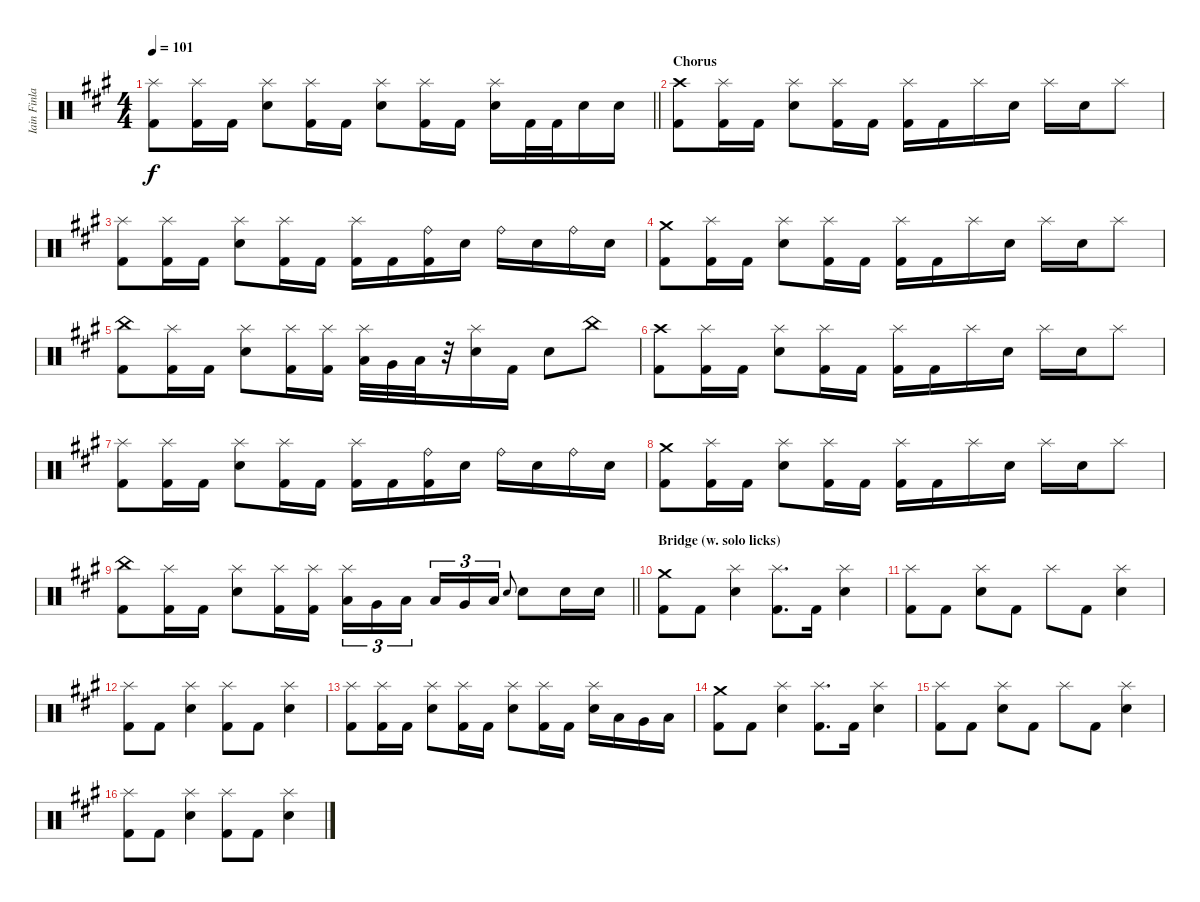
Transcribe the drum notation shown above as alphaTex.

\track ("Iain Finlay" "Iain Finla") {instrument percussion}
\staff {score}
\articulation defaults
\ts (4 4)
\tempo 101
\clef neutral
\barLineRight lightlight
\ks f#minor
("Splash (hit)" "Kick (hit) 2").8{dy f} ("Splash (hit)" "Kick (hit) 2").16 "Kick (hit) 2".16 ("Splash (hit)" "Snare (hit) 2").8 ("Splash (hit)" "Kick (hit) 2").16 "Kick (hit) 2".16 ("Splash (hit)" "Snare (hit) 2").8 ("Splash (hit)" "Kick (hit) 2").16 "Kick (hit) 2".16 ("Splash (hit)" "Snare (hit) 2").16 "Kick (hit) 2".32 "Kick (hit) 2".32 "Snare (hit) 2".16 "Snare (hit) 2".16 |
\section ("" "Chorus")
("Crash high (hit)" "Kick (hit) 2").8 ("Splash (hit)" "Kick (hit) 2").16 "Kick (hit) 2".16 ("Splash (hit)" "Snare (hit) 2").8 ("Splash (hit)" "Kick (hit) 2").16 "Kick (hit) 2".16 ("Splash (hit)" "Kick (hit) 2").16 "Kick (hit) 2".16 "Splash (hit)".16 "Snare (hit) 2".16 "Splash (hit)".16 "Snare (hit) 2".16 "Splash (hit)".8 |
("Splash (hit)" "Kick (hit) 2").8 ("Splash (hit)" "Kick (hit) 2").16 "Kick (hit) 2".16 ("Splash (hit)" "Snare (hit) 2").8 ("Splash (hit)" "Kick (hit) 2").16 "Kick (hit) 2".16 ("Splash (hit)" "Kick (hit) 2").16 "Kick (hit) 2".16 ("Ride (bell)" "Kick (hit) 2").16 "Snare (hit) 2".16 "Ride (bell)".16 "Snare (hit) 2".16 "Ride (bell)".16 "Snare (hit) 2".16 |
("Crash medium (hit)" "Kick (hit) 2").8 ("Splash (hit)" "Kick (hit) 2").16 "Kick (hit) 2".16 ("Splash (hit)" "Snare (hit) 2").8 ("Splash (hit)" "Kick (hit) 2").16 "Kick (hit) 2".16 ("Splash (hit)" "Kick (hit) 2").16 "Kick (hit) 2".16 "Splash (hit)".16 "Snare (hit) 2".16 "Splash (hit)".16 "Snare (hit) 2".16 "Splash (hit)".8 |
("China (hit)" "Kick (hit) 2").8 ("Splash (hit)" "Kick (hit) 2").16 "Kick (hit) 2".16 ("Splash (hit)" "Snare (hit) 2").8 ("Splash (hit)" "Kick (hit) 2").16 ("Splash (hit)" "Kick (hit) 2").16 ("Splash (hit)" "Low Tom (hit)").32 "Very Low Tom (hit)".32 "Low Floor Tom (hit)".32 r.32 ("Splash (hit)" "Snare (hit) 2").16 "Kick (hit) 2".16 "Snare (hit) 2".8 "China (hit)".8 |
("Crash high (hit)" "Kick (hit) 2").8 ("Splash (hit)" "Kick (hit) 2").16 "Kick (hit) 2".16 ("Splash (hit)" "Snare (hit) 2").8 ("Splash (hit)" "Kick (hit) 2").16 "Kick (hit) 2".16 ("Splash (hit)" "Kick (hit) 2").16 "Kick (hit) 2".16 "Splash (hit)".16 "Snare (hit) 2".16 "Splash (hit)".16 "Snare (hit) 2".16 "Splash (hit)".8 |
("Splash (hit)" "Kick (hit) 2").8 ("Splash (hit)" "Kick (hit) 2").16 "Kick (hit) 2".16 ("Splash (hit)" "Snare (hit) 2").8 ("Splash (hit)" "Kick (hit) 2").16 "Kick (hit) 2".16 ("Splash (hit)" "Kick (hit) 2").16 "Kick (hit) 2".16 ("Ride (bell)" "Kick (hit) 2").16 "Snare (hit) 2".16 "Ride (bell)".16 "Snare (hit) 2".16 "Ride (bell)".16 "Snare (hit) 2".16 |
("Crash medium (hit)" "Kick (hit) 2").8 ("Splash (hit)" "Kick (hit) 2").16 "Kick (hit) 2".16 ("Splash (hit)" "Snare (hit) 2").8 ("Splash (hit)" "Kick (hit) 2").16 "Kick (hit) 2".16 ("Splash (hit)" "Kick (hit) 2").16 "Kick (hit) 2".16 "Splash (hit)".16 "Snare (hit) 2".16 "Splash (hit)".16 "Snare (hit) 2".16 "Splash (hit)".8 |
\barLineRight lightlight
("China (hit)" "Kick (hit) 2").8 ("Splash (hit)" "Kick (hit) 2").16 "Kick (hit) 2".16 ("Splash (hit)" "Snare (hit) 2").8 ("Splash (hit)" "Kick (hit) 2").16 ("Splash (hit)" "Kick (hit) 2").16 ("Splash (hit)" "Low Tom (hit)").16{tu (3 2)} "Very Low Tom (hit)".16{tu (3 2)} "Low Floor Tom (hit)".16{tu (3 2) beam splitsecondary} "Low Floor Tom (hit)".16{tu (3 2)} "Very Low Tom (hit)".16{tu (3 2)} "Low Tom (hit)".16{tu (3 2)} "Snare (hit) 2".8{gr onbeat} "Snare (hit) 2".8 "Snare (hit) 2".16 "Snare (hit) 2".16 |
\section ("" "Bridge (w. solo licks)")
("Crash medium (hit)" "Kick (hit) 2").8 "Kick (hit) 2".8 ("Splash (hit)" "Snare (hit) 2").4 ("Splash (hit)" "Kick (hit) 2").8{d} "Kick (hit) 2".16 ("Splash (hit)" "Snare (hit) 2").4 |
("Splash (hit)" "Kick (hit) 2").8 "Kick (hit) 2".8 ("Splash (hit)" "Snare (hit) 2").8 "Kick (hit) 2".8 "Splash (hit)".8 "Kick (hit) 2".8 ("Splash (hit)" "Snare (hit) 2").4 |
("Splash (hit)" "Kick (hit) 2").8 "Kick (hit) 2".8 ("Splash (hit)" "Snare (hit) 2").4 ("Splash (hit)" "Kick (hit) 2").8 "Kick (hit) 2".8 ("Splash (hit)" "Snare (hit) 2").4 |
("Splash (hit)" "Kick (hit) 2").8 ("Splash (hit)" "Kick (hit) 2").16 "Kick (hit) 2".16 ("Splash (hit)" "Snare (hit) 2").8 ("Splash (hit)" "Kick (hit) 2").16 "Kick (hit) 2".16 ("Splash (hit)" "Snare (hit) 2").8 ("Splash (hit)" "Kick (hit) 2").16 "Kick (hit) 2".16 ("Splash (hit)" "Snare (hit) 2").16 "Low Tom (hit)".16 "Very Low Tom (hit)".16 "Low Floor Tom (hit)".16 |
("Crash medium (hit)" "Kick (hit) 2").8 "Kick (hit) 2".8 ("Splash (hit)" "Snare (hit) 2").4 ("Splash (hit)" "Kick (hit) 2").8{d} "Kick (hit) 2".16 ("Splash (hit)" "Snare (hit) 2").4 |
("Splash (hit)" "Kick (hit) 2").8 "Kick (hit) 2".8 ("Splash (hit)" "Snare (hit) 2").8 "Kick (hit) 2".8 "Splash (hit)".8 "Kick (hit) 2".8 ("Splash (hit)" "Snare (hit) 2").4 |
("Splash (hit)" "Kick (hit) 2").8 "Kick (hit) 2".8 ("Splash (hit)" "Snare (hit) 2").4 ("Splash (hit)" "Kick (hit) 2").8 "Kick (hit) 2".8 ("Splash (hit)" "Snare (hit) 2").4
